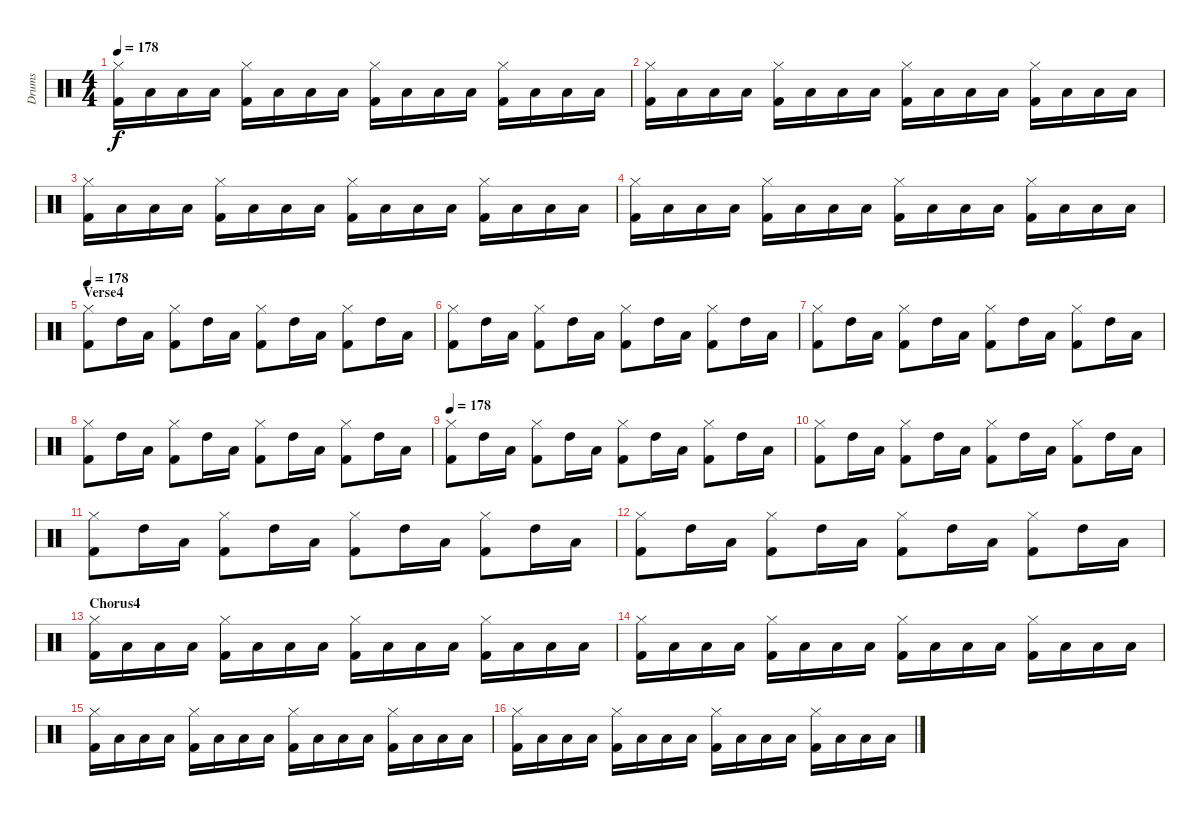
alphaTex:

\track ("Drums" "Drums") {instrument percussion}
\staff {score}
\articulation defaults
\ts (4 4)
\tempo 178
\clef neutral
\ks c
("Kick (hit) 2" "Hi-Hat (closed)").16{dy f} "Low Tom (hit)".16 "Low Tom (hit)".16 "Low Tom (hit)".16 ("Kick (hit) 2" "Hi-Hat (closed)").16 "Low Tom (hit)".16 "Low Tom (hit)".16 "Low Tom (hit)".16 ("Kick (hit) 2" "Hi-Hat (closed)").16 "Low Tom (hit)".16 "Low Tom (hit)".16 "Low Tom (hit)".16 ("Hi-Hat (closed)" "Kick (hit) 2").16 "Low Tom (hit)".16 "Low Tom (hit)".16 "Low Tom (hit)".16 |
("Kick (hit) 2" "Hi-Hat (closed)").16 "Low Tom (hit)".16 "Low Tom (hit)".16 "Low Tom (hit)".16 ("Kick (hit) 2" "Hi-Hat (closed)").16 "Low Tom (hit)".16 "Low Tom (hit)".16 "Low Tom (hit)".16 ("Kick (hit) 2" "Hi-Hat (closed)").16 "Low Tom (hit)".16 "Low Tom (hit)".16 "Low Tom (hit)".16 ("Hi-Hat (closed)" "Kick (hit) 2").16 "Low Tom (hit)".16 "Low Tom (hit)".16 "Low Tom (hit)".16 |
("Kick (hit) 2" "Hi-Hat (closed)").16 "Low Tom (hit)".16 "Low Tom (hit)".16 "Low Tom (hit)".16 ("Kick (hit) 2" "Hi-Hat (closed)").16 "Low Tom (hit)".16 "Low Tom (hit)".16 "Low Tom (hit)".16 ("Kick (hit) 2" "Hi-Hat (closed)").16 "Low Tom (hit)".16 "Low Tom (hit)".16 "Low Tom (hit)".16 ("Hi-Hat (closed)" "Kick (hit) 2").16 "Low Tom (hit)".16 "Low Tom (hit)".16 "Low Tom (hit)".16 |
("Kick (hit) 2" "Hi-Hat (closed)").16 "Low Tom (hit)".16 "Low Tom (hit)".16 "Low Tom (hit)".16 ("Kick (hit) 2" "Hi-Hat (closed)").16 "Low Tom (hit)".16 "Low Tom (hit)".16 "Low Tom (hit)".16 ("Kick (hit) 2" "Hi-Hat (closed)").16 "Low Tom (hit)".16 "Low Tom (hit)".16 "Low Tom (hit)".16 ("Hi-Hat (closed)" "Kick (hit) 2").16 "Low Tom (hit)".16 "Low Tom (hit)".16 "Low Tom (hit)".16 |
\section ("" "Verse4")
\tempo 178
("Hi-Hat (closed)" "Kick (hit) 2").8 "High Tom (hit)".16 "Low Tom (hit)".16 ("Hi-Hat (closed)" "Kick (hit) 2").8 "High Tom (hit)".16 "Low Tom (hit)".16 ("Hi-Hat (closed)" "Kick (hit) 2").8 "High Tom (hit)".16 "Low Tom (hit)".16 ("Hi-Hat (closed)" "Kick (hit) 2").8 "High Tom (hit)".16 "Low Tom (hit)".16 |
("Hi-Hat (closed)" "Kick (hit) 2").8 "High Tom (hit)".16 "Low Tom (hit)".16 ("Hi-Hat (closed)" "Kick (hit) 2").8 "High Tom (hit)".16 "Low Tom (hit)".16 ("Hi-Hat (closed)" "Kick (hit) 2").8 "High Tom (hit)".16 "Low Tom (hit)".16 ("Hi-Hat (closed)" "Kick (hit) 2").8 "High Tom (hit)".16 "Low Tom (hit)".16 |
("Hi-Hat (closed)" "Kick (hit) 2").8 "High Tom (hit)".16 "Low Tom (hit)".16 ("Hi-Hat (closed)" "Kick (hit) 2").8 "High Tom (hit)".16 "Low Tom (hit)".16 ("Hi-Hat (closed)" "Kick (hit) 2").8 "High Tom (hit)".16 "Low Tom (hit)".16 ("Hi-Hat (closed)" "Kick (hit) 2").8 "High Tom (hit)".16 "Low Tom (hit)".16 |
("Hi-Hat (closed)" "Kick (hit) 2").8 "High Tom (hit)".16 "Low Tom (hit)".16 ("Hi-Hat (closed)" "Kick (hit) 2").8 "High Tom (hit)".16 "Low Tom (hit)".16 ("Hi-Hat (closed)" "Kick (hit) 2").8 "High Tom (hit)".16 "Low Tom (hit)".16 ("Hi-Hat (closed)" "Kick (hit) 2").8 "High Tom (hit)".16 "Low Tom (hit)".16 |
\tempo 178
("Hi-Hat (closed)" "Kick (hit) 2").8 "High Tom (hit)".16 "Low Tom (hit)".16 ("Hi-Hat (closed)" "Kick (hit) 2").8 "High Tom (hit)".16 "Low Tom (hit)".16 ("Hi-Hat (closed)" "Kick (hit) 2").8 "High Tom (hit)".16 "Low Tom (hit)".16 ("Hi-Hat (closed)" "Kick (hit) 2").8 "High Tom (hit)".16 "Low Tom (hit)".16 |
("Hi-Hat (closed)" "Kick (hit) 2").8 "High Tom (hit)".16 "Low Tom (hit)".16 ("Hi-Hat (closed)" "Kick (hit) 2").8 "High Tom (hit)".16 "Low Tom (hit)".16 ("Hi-Hat (closed)" "Kick (hit) 2").8 "High Tom (hit)".16 "Low Tom (hit)".16 ("Hi-Hat (closed)" "Kick (hit) 2").8 "High Tom (hit)".16 "Low Tom (hit)".16 |
("Hi-Hat (closed)" "Kick (hit) 2").8 "High Tom (hit)".16 "Low Tom (hit)".16 ("Hi-Hat (closed)" "Kick (hit) 2").8 "High Tom (hit)".16 "Low Tom (hit)".16 ("Hi-Hat (closed)" "Kick (hit) 2").8 "High Tom (hit)".16 "Low Tom (hit)".16 ("Hi-Hat (closed)" "Kick (hit) 2").8 "High Tom (hit)".16 "Low Tom (hit)".16 |
("Hi-Hat (closed)" "Kick (hit) 2").8 "High Tom (hit)".16 "Low Tom (hit)".16 ("Hi-Hat (closed)" "Kick (hit) 2").8 "High Tom (hit)".16 "Low Tom (hit)".16 ("Hi-Hat (closed)" "Kick (hit) 2").8 "High Tom (hit)".16 "Low Tom (hit)".16 ("Hi-Hat (closed)" "Kick (hit) 2").8 "High Tom (hit)".16 "Low Tom (hit)".16 |
\section ("" "Chorus4")
("Kick (hit) 2" "Hi-Hat (closed)").16 "Low Tom (hit)".16 "Low Tom (hit)".16 "Low Tom (hit)".16 ("Kick (hit) 2" "Hi-Hat (closed)").16 "Low Tom (hit)".16 "Low Tom (hit)".16 "Low Tom (hit)".16 ("Kick (hit) 2" "Hi-Hat (closed)").16 "Low Tom (hit)".16 "Low Tom (hit)".16 "Low Tom (hit)".16 ("Hi-Hat (closed)" "Kick (hit) 2").16 "Low Tom (hit)".16 "Low Tom (hit)".16 "Low Tom (hit)".16 |
("Kick (hit) 2" "Hi-Hat (closed)").16 "Low Tom (hit)".16 "Low Tom (hit)".16 "Low Tom (hit)".16 ("Kick (hit) 2" "Hi-Hat (closed)").16 "Low Tom (hit)".16 "Low Tom (hit)".16 "Low Tom (hit)".16 ("Kick (hit) 2" "Hi-Hat (closed)").16 "Low Tom (hit)".16 "Low Tom (hit)".16 "Low Tom (hit)".16 ("Hi-Hat (closed)" "Kick (hit) 2").16 "Low Tom (hit)".16 "Low Tom (hit)".16 "Low Tom (hit)".16 |
("Kick (hit) 2" "Hi-Hat (closed)").16 "Low Tom (hit)".16 "Low Tom (hit)".16 "Low Tom (hit)".16 ("Kick (hit) 2" "Hi-Hat (closed)").16 "Low Tom (hit)".16 "Low Tom (hit)".16 "Low Tom (hit)".16 ("Kick (hit) 2" "Hi-Hat (closed)").16 "Low Tom (hit)".16 "Low Tom (hit)".16 "Low Tom (hit)".16 ("Hi-Hat (closed)" "Kick (hit) 2").16 "Low Tom (hit)".16 "Low Tom (hit)".16 "Low Tom (hit)".16 |
("Kick (hit) 2" "Hi-Hat (closed)").16 "Low Tom (hit)".16 "Low Tom (hit)".16 "Low Tom (hit)".16 ("Kick (hit) 2" "Hi-Hat (closed)").16 "Low Tom (hit)".16 "Low Tom (hit)".16 "Low Tom (hit)".16 ("Kick (hit) 2" "Hi-Hat (closed)").16 "Low Tom (hit)".16 "Low Tom (hit)".16 "Low Tom (hit)".16 ("Hi-Hat (closed)" "Kick (hit) 2").16 "Low Tom (hit)".16 "Low Tom (hit)".16 "Low Tom (hit)".16
